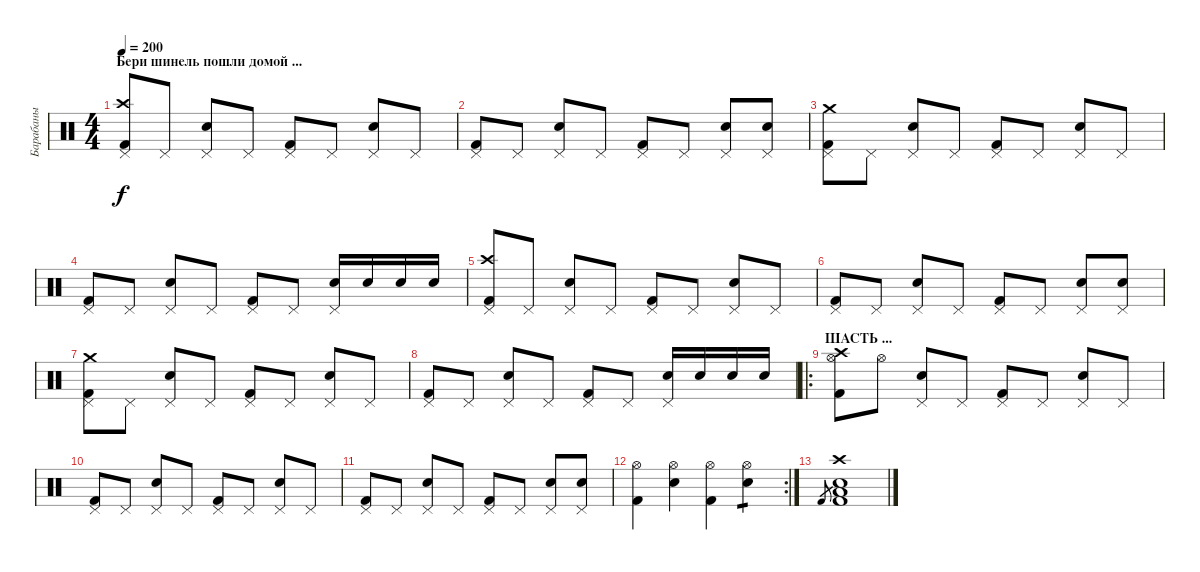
\track ("Барабаны" "Барабаны") {instrument percussion}
\staff {score}
\articulation defaults
\ts (4 4)
\section ("" "Бери шинель пошли домой ...")
\tempo 200
\clef neutral
\ks c
("Pedal Hi-Hat (hit)" "Crash high (hit)" "Kick (hit) 2").8{dy f} "Pedal Hi-Hat (hit)".8 ("Pedal Hi-Hat (hit)" "Electric Snare (hit)").8 "Pedal Hi-Hat (hit)".8 ("Pedal Hi-Hat (hit)" "Kick (hit) 2").8 "Pedal Hi-Hat (hit)".8 ("Pedal Hi-Hat (hit)" "Electric Snare (hit)").8 "Pedal Hi-Hat (hit)".8 |
("Pedal Hi-Hat (hit)" "Kick (hit) 2").8 "Pedal Hi-Hat (hit)".8 ("Pedal Hi-Hat (hit)" "Electric Snare (hit)").8 "Pedal Hi-Hat (hit)".8 ("Pedal Hi-Hat (hit)" "Kick (hit) 2").8 "Pedal Hi-Hat (hit)".8 ("Pedal Hi-Hat (hit)" "Electric Snare (hit)").8 ("Pedal Hi-Hat (hit)" "Electric Snare (hit)").8 |
("Pedal Hi-Hat (hit)" "Crash medium (hit)" "Kick (hit) 2").8 "Pedal Hi-Hat (hit)".8 ("Pedal Hi-Hat (hit)" "Electric Snare (hit)").8 "Pedal Hi-Hat (hit)".8 ("Pedal Hi-Hat (hit)" "Kick (hit) 2").8 "Pedal Hi-Hat (hit)".8 ("Pedal Hi-Hat (hit)" "Electric Snare (hit)").8 "Pedal Hi-Hat (hit)".8 |
("Pedal Hi-Hat (hit)" "Kick (hit) 2").8 "Pedal Hi-Hat (hit)".8 ("Pedal Hi-Hat (hit)" "Electric Snare (hit)").8 "Pedal Hi-Hat (hit)".8 ("Pedal Hi-Hat (hit)" "Kick (hit) 2").8 "Pedal Hi-Hat (hit)".8 ("Pedal Hi-Hat (hit)" "Electric Snare (hit)").16 "Electric Snare (hit)".16 "Electric Snare (hit)".16 "Electric Snare (hit)".16 |
("Pedal Hi-Hat (hit)" "Crash high (hit)" "Kick (hit) 2").8 "Pedal Hi-Hat (hit)".8 ("Pedal Hi-Hat (hit)" "Electric Snare (hit)").8 "Pedal Hi-Hat (hit)".8 ("Pedal Hi-Hat (hit)" "Kick (hit) 2").8 "Pedal Hi-Hat (hit)".8 ("Pedal Hi-Hat (hit)" "Electric Snare (hit)").8 "Pedal Hi-Hat (hit)".8 |
("Pedal Hi-Hat (hit)" "Kick (hit) 2").8 "Pedal Hi-Hat (hit)".8 ("Pedal Hi-Hat (hit)" "Electric Snare (hit)").8 "Pedal Hi-Hat (hit)".8 ("Pedal Hi-Hat (hit)" "Kick (hit) 2").8 "Pedal Hi-Hat (hit)".8 ("Pedal Hi-Hat (hit)" "Electric Snare (hit)").8 ("Pedal Hi-Hat (hit)" "Electric Snare (hit)").8 |
("Pedal Hi-Hat (hit)" "Crash medium (hit)" "Kick (hit) 2").8 "Pedal Hi-Hat (hit)".8 ("Pedal Hi-Hat (hit)" "Electric Snare (hit)").8 "Pedal Hi-Hat (hit)".8 ("Pedal Hi-Hat (hit)" "Kick (hit) 2").8 "Pedal Hi-Hat (hit)".8 ("Pedal Hi-Hat (hit)" "Electric Snare (hit)").8 "Pedal Hi-Hat (hit)".8 |
("Pedal Hi-Hat (hit)" "Kick (hit) 2").8 "Pedal Hi-Hat (hit)".8 ("Pedal Hi-Hat (hit)" "Electric Snare (hit)").8 "Pedal Hi-Hat (hit)".8 ("Pedal Hi-Hat (hit)" "Kick (hit) 2").8 "Pedal Hi-Hat (hit)".8 ("Pedal Hi-Hat (hit)" "Electric Snare (hit)").16 "Electric Snare (hit)".16 "Electric Snare (hit)".16 "Electric Snare (hit)".16 |
\ro
\section ("" "ШАСТЬ ...")
("Hi-Hat (open)" "Crash high (hit)" "Kick (hit) 2").8 "Hi-Hat (open)".8 ("Pedal Hi-Hat (hit)" "Electric Snare (hit)").8 "Pedal Hi-Hat (hit)".8 ("Pedal Hi-Hat (hit)" "Kick (hit) 2").8 "Pedal Hi-Hat (hit)".8 ("Pedal Hi-Hat (hit)" "Electric Snare (hit)").8 "Pedal Hi-Hat (hit)".8 |
("Pedal Hi-Hat (hit)" "Kick (hit) 2").8 "Pedal Hi-Hat (hit)".8 ("Pedal Hi-Hat (hit)" "Electric Snare (hit)").8 "Pedal Hi-Hat (hit)".8 ("Pedal Hi-Hat (hit)" "Kick (hit) 2").8 "Pedal Hi-Hat (hit)".8 ("Pedal Hi-Hat (hit)" "Electric Snare (hit)").8 "Pedal Hi-Hat (hit)".8 |
("Pedal Hi-Hat (hit)" "Kick (hit) 2").8 "Pedal Hi-Hat (hit)".8 ("Pedal Hi-Hat (hit)" "Electric Snare (hit)").8 "Pedal Hi-Hat (hit)".8 ("Pedal Hi-Hat (hit)" "Kick (hit) 2").8 "Pedal Hi-Hat (hit)".8 ("Pedal Hi-Hat (hit)" "Electric Snare (hit)").8 ("Pedal Hi-Hat (hit)" "Electric Snare (hit)").8 |
\rc 2
("Kick (hit) 2" "Hi-Hat (open)").4 ("Electric Snare (hit)" "Hi-Hat (open)").4 ("Kick (hit) 2" "Hi-Hat (open)").4 ("Electric Snare (hit)" "Hi-Hat (open)").4{tp 1} |
"Kick (hit) 2".8{gr} ("Kick (hit) 2" "Electric Snare (hit)" "Low Tom (hit)" "Crash high (hit)").1
